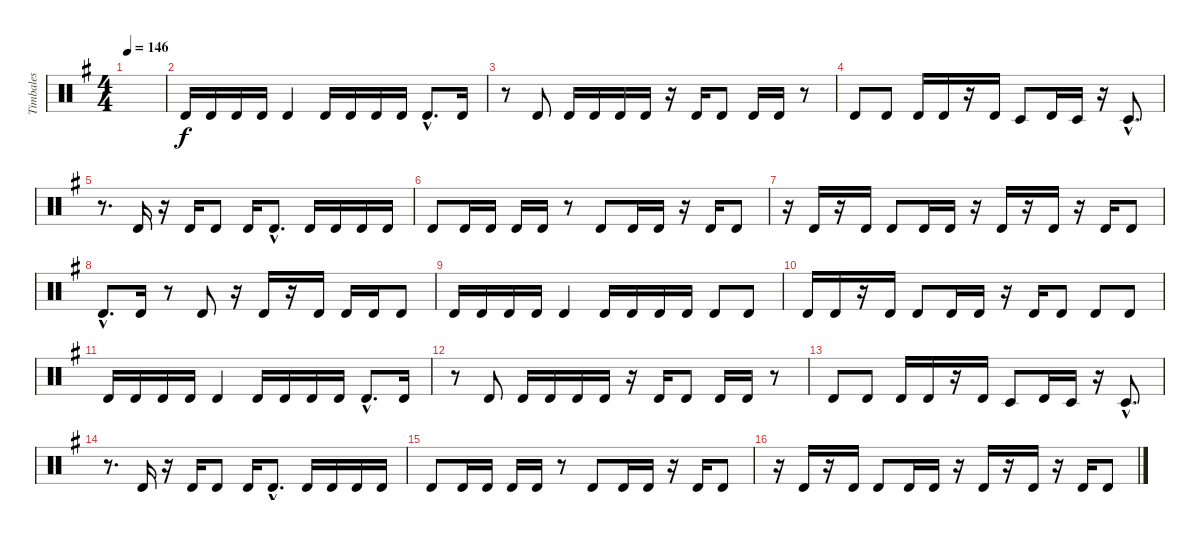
\track ("Timbales" "Timbales") {instrument percussion}
\staff {score}
\articulation defaults
\ts (4 4)
\tempo 146
\clef neutral
\ks g
|
"Timbale high (hit)".16 "Timbale high (hit)".16 "Timbale high (hit)".16 "Timbale high (hit)".16 "Timbale high (hit)".4 "Timbale high (hit)".16 "Timbale high (hit)".16 "Timbale high (hit)".16 "Timbale high (hit)".16 "Timbale high (hit)"{hac}.8{d} "Timbale high (hit)".16 |
r.8 "Timbale high (hit)".8 "Timbale high (hit)".16 "Timbale high (hit)".16 "Timbale high (hit)".16 "Timbale high (hit)".16 r.16 "Timbale high (hit)".16 "Timbale high (hit)".8 "Timbale high (hit)".16 "Timbale high (hit)".16 r.8 |
"Timbale high (hit)".8 "Timbale high (hit)".8 "Timbale high (hit)".16 "Timbale high (hit)".16 r.16 "Timbale high (hit)".16 "Timbale low (hit)".8 "Timbale high (hit)".16 "Timbale low (hit)".16 r.16 "Timbale low (hit)"{hac}.8{d} |
r.8{d} "Timbale high (hit)".16 r.16 "Timbale high (hit)".16 "Timbale high (hit)".8 "Timbale high (hit)".16 "Timbale high (hit)"{hac}.8{d} "Timbale high (hit)".16 "Timbale high (hit)".16 "Timbale high (hit)".16 "Timbale high (hit)".16 |
"Timbale high (hit)".8 "Timbale high (hit)".16 "Timbale high (hit)".16 "Timbale high (hit)".16 "Timbale high (hit)".16 r.8 "Timbale high (hit)".8 "Timbale high (hit)".16 "Timbale high (hit)".16 r.16 "Timbale high (hit)".16 "Timbale high (hit)".8 |
r.16 "Timbale high (hit)".16 r.16 "Timbale high (hit)".16 "Timbale high (hit)".8 "Timbale high (hit)".16 "Timbale high (hit)".16 r.16 "Timbale high (hit)".16 r.16 "Timbale high (hit)".16 r.16 "Timbale high (hit)".16 "Timbale high (hit)".8 |
"Timbale high (hit)"{hac}.8{d} "Timbale high (hit)".16 r.8 "Timbale high (hit)".8 r.16 "Timbale high (hit)".16 r.16 "Timbale high (hit)".16 "Timbale high (hit)".16 "Timbale high (hit)".16 "Timbale high (hit)".8 |
"Timbale high (hit)".16 "Timbale high (hit)".16 "Timbale high (hit)".16 "Timbale high (hit)".16 "Timbale high (hit)".4 "Timbale high (hit)".16 "Timbale high (hit)".16 "Timbale high (hit)".16 "Timbale high (hit)".16 "Timbale high (hit)".8 "Timbale high (hit)".8 |
"Timbale high (hit)".16 "Timbale high (hit)".16 r.16 "Timbale high (hit)".16 "Timbale high (hit)".8 "Timbale high (hit)".16 "Timbale high (hit)".16 r.16 "Timbale high (hit)".16 "Timbale high (hit)".8 "Timbale high (hit)".8 "Timbale high (hit)".8 |
"Timbale high (hit)".16 "Timbale high (hit)".16 "Timbale high (hit)".16 "Timbale high (hit)".16 "Timbale high (hit)".4 "Timbale high (hit)".16 "Timbale high (hit)".16 "Timbale high (hit)".16 "Timbale high (hit)".16 "Timbale high (hit)"{hac}.8{d} "Timbale high (hit)".16 |
r.8 "Timbale high (hit)".8 "Timbale high (hit)".16 "Timbale high (hit)".16 "Timbale high (hit)".16 "Timbale high (hit)".16 r.16 "Timbale high (hit)".16 "Timbale high (hit)".8 "Timbale high (hit)".16 "Timbale high (hit)".16 r.8 |
"Timbale high (hit)".8 "Timbale high (hit)".8 "Timbale high (hit)".16 "Timbale high (hit)".16 r.16 "Timbale high (hit)".16 "Timbale low (hit)".8 "Timbale high (hit)".16 "Timbale low (hit)".16 r.16 "Timbale low (hit)"{hac}.8{d} |
r.8{d} "Timbale high (hit)".16 r.16 "Timbale high (hit)".16 "Timbale high (hit)".8 "Timbale high (hit)".16 "Timbale high (hit)"{hac}.8{d} "Timbale high (hit)".16 "Timbale high (hit)".16 "Timbale high (hit)".16 "Timbale high (hit)".16 |
"Timbale high (hit)".8 "Timbale high (hit)".16 "Timbale high (hit)".16 "Timbale high (hit)".16 "Timbale high (hit)".16 r.8 "Timbale high (hit)".8 "Timbale high (hit)".16 "Timbale high (hit)".16 r.16 "Timbale high (hit)".16 "Timbale high (hit)".8 |
r.16 "Timbale high (hit)".16 r.16 "Timbale high (hit)".16 "Timbale high (hit)".8 "Timbale high (hit)".16 "Timbale high (hit)".16 r.16 "Timbale high (hit)".16 r.16 "Timbale high (hit)".16 r.16 "Timbale high (hit)".16 "Timbale high (hit)".8
